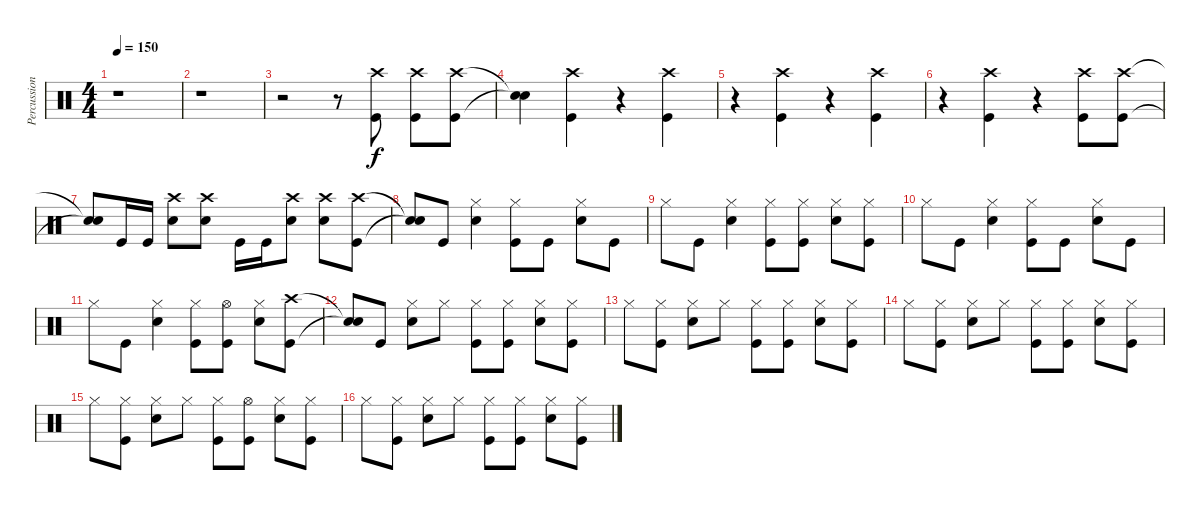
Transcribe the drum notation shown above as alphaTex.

\track ("Percussion" "Percussion") {instrument percussion}
\staff {score}
\articulation defaults
\ts (4 4)
\tempo 150
\clef neutral
\ks c
r.1{dy f} |
r.1 |
r.2 r.8 ("Crash high (hit)" "Kick (hit)").8 ("Crash high (hit)" "Kick (hit)").8 ("Crash high (hit)" "Kick (hit)").8 |
("Snare (hit)"{t} "Snare (hit)"{t}).4 ("Crash high (hit)" "Kick (hit)").4 r.4 ("Crash high (hit)" "Kick (hit)").4 |
r.4 ("Crash high (hit)" "Kick (hit)").4 r.4 ("Crash high (hit)" "Kick (hit)").4 |
r.4 ("Crash high (hit)" "Kick (hit)").4 r.4 ("Crash high (hit)" "Kick (hit)").8 ("Crash high (hit)" "Kick (hit)").8 |
("Snare (hit)"{t} "Snare (hit)"{t}).8 "Kick (hit)".16 "Kick (hit)".16 ("Crash high (hit)" "Electric Snare (hit)").8 ("Crash high (hit)" "Electric Snare (hit)").8 "Kick (hit)".16 "Kick (hit)".16 ("Crash high (hit)" "Electric Snare (hit)").8 ("Crash high (hit)" "Electric Snare (hit)").8 ("Crash high (hit)" "Kick (hit)").8 |
("Snare (hit)"{t} "Snare (hit)"{t}).8 "Kick (hit)".8 ("Hi-Hat (closed)" "Electric Snare (hit)").4 ("Hi-Hat (closed)" "Kick (hit)").8 "Kick (hit)".8 ("Hi-Hat (closed)" "Electric Snare (hit)").8 "Kick (hit)".8 |
"Hi-Hat (closed)".8 "Kick (hit)".8 ("Hi-Hat (closed)" "Electric Snare (hit)").4 ("Hi-Hat (closed)" "Kick (hit)").8 ("Hi-Hat (closed)" "Kick (hit)").8 ("Hi-Hat (closed)" "Electric Snare (hit)").8 ("Hi-Hat (closed)" "Kick (hit)").8 |
"Hi-Hat (closed)".8 "Kick (hit)".8 ("Hi-Hat (closed)" "Electric Snare (hit)").4 ("Hi-Hat (closed)" "Kick (hit)").8 "Kick (hit)".8 ("Hi-Hat (closed)" "Electric Snare (hit)").8 "Kick (hit)".8 |
"Hi-Hat (closed)".8 "Kick (hit)".8 ("Hi-Hat (closed)" "Electric Snare (hit)").4 ("Hi-Hat (closed)" "Kick (hit)").8 ("Hi-Hat (open)" "Kick (hit)").8 ("Hi-Hat (closed)" "Electric Snare (hit)").8 ("Crash high (hit)" "Kick (hit)").8 |
("Snare (hit)"{t} "Snare (hit)"{t}).8 "Kick (hit)".8 ("Hi-Hat (closed)" "Electric Snare (hit)").8 "Hi-Hat (closed)".8 ("Hi-Hat (closed)" "Kick (hit)").8 ("Hi-Hat (closed)" "Kick (hit)").8 ("Hi-Hat (closed)" "Electric Snare (hit)").8 ("Hi-Hat (closed)" "Kick (hit)").8 |
"Hi-Hat (closed)".8 ("Hi-Hat (closed)" "Kick (hit)").8 ("Hi-Hat (closed)" "Electric Snare (hit)").8 "Hi-Hat (closed)".8 ("Hi-Hat (closed)" "Kick (hit)").8 ("Hi-Hat (closed)" "Kick (hit)").8 ("Hi-Hat (closed)" "Electric Snare (hit)").8 ("Hi-Hat (closed)" "Kick (hit)").8 |
"Hi-Hat (closed)".8 ("Hi-Hat (closed)" "Kick (hit)").8 ("Hi-Hat (closed)" "Electric Snare (hit)").8 "Hi-Hat (closed)".8 ("Hi-Hat (closed)" "Kick (hit)").8 ("Hi-Hat (closed)" "Kick (hit)").8 ("Hi-Hat (closed)" "Electric Snare (hit)").8 ("Hi-Hat (closed)" "Kick (hit)").8 |
"Hi-Hat (closed)".8 ("Hi-Hat (closed)" "Kick (hit)").8 ("Hi-Hat (closed)" "Electric Snare (hit)").8 "Hi-Hat (closed)".8 ("Hi-Hat (closed)" "Kick (hit)").8 ("Hi-Hat (open)" "Kick (hit)").8 ("Hi-Hat (closed)" "Electric Snare (hit)").8 ("Hi-Hat (closed)" "Kick (hit)").8 |
"Hi-Hat (closed)".8 ("Hi-Hat (closed)" "Kick (hit)").8 ("Hi-Hat (closed)" "Electric Snare (hit)").8 "Hi-Hat (closed)".8 ("Hi-Hat (closed)" "Kick (hit)").8 ("Hi-Hat (closed)" "Kick (hit)").8 ("Hi-Hat (closed)" "Electric Snare (hit)").8 ("Hi-Hat (closed)" "Kick (hit)").8
